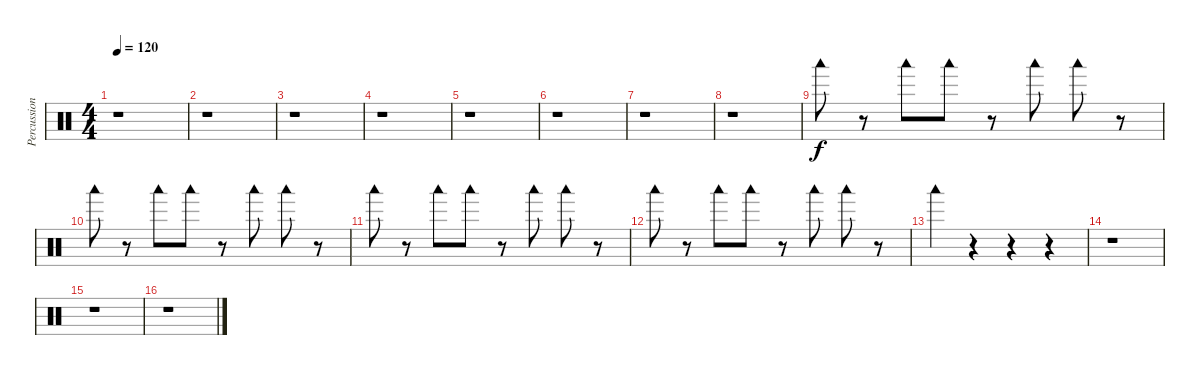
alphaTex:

\track ("Percussions" "Percussion") {instrument percussion}
\staff {score}
\articulation defaults
\ts (4 4)
\tempo 120
\clef neutral
\ks c
r.1{dy f} |
r.1 |
r.1 |
r.1 |
r.1 |
r.1 |
r.1 |
r.1 |
"Woodblock low (hit)".8 r.8 "Woodblock low (hit)".8 "Woodblock low (hit)".8 r.8 "Woodblock low (hit)".8 "Woodblock low (hit)".8 r.8 |
"Woodblock low (hit)".8 r.8 "Woodblock low (hit)".8 "Woodblock low (hit)".8 r.8 "Woodblock low (hit)".8 "Woodblock low (hit)".8 r.8 |
"Woodblock low (hit)".8 r.8 "Woodblock low (hit)".8 "Woodblock low (hit)".8 r.8 "Woodblock low (hit)".8 "Woodblock low (hit)".8 r.8 |
"Woodblock low (hit)".8 r.8 "Woodblock low (hit)".8 "Woodblock low (hit)".8 r.8 "Woodblock low (hit)".8 "Woodblock low (hit)".8 r.8 |
"Woodblock low (hit)".4 r.4 r.4 r.4 |
r.1 |
r.1 |
r.1
